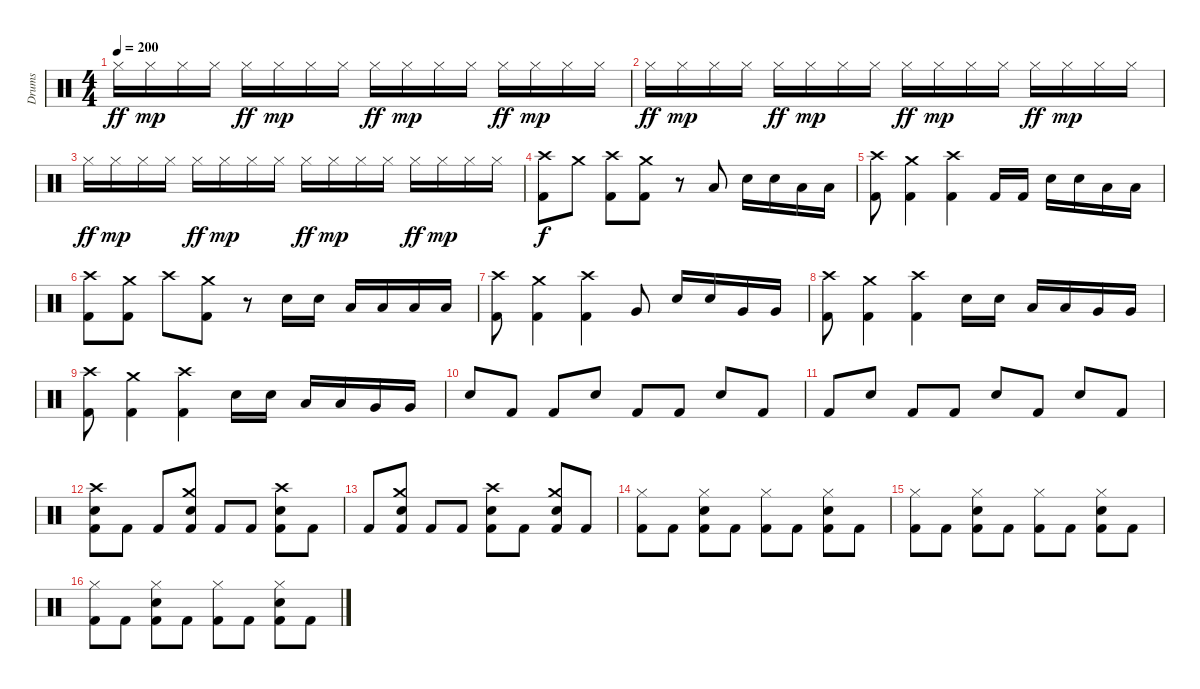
\track ("Drums" "Drums") {instrument percussion}
\staff {score}
\articulation defaults
\ts (4 4)
\tempo 200
\clef neutral
\ks c "Hi-Hat (closed)".16{dy ff} "Hi-Hat (closed)".16{dy mp} "Hi-Hat (closed)".16 "Hi-Hat (closed)".16 "Hi-Hat (closed)".16{dy ff} "Hi-Hat (closed)".16{dy mp} "Hi-Hat (closed)".16 "Hi-Hat (closed)".16 "Hi-Hat (closed)".16{dy ff} "Hi-Hat (closed)".16{dy mp} "Hi-Hat (closed)".16 "Hi-Hat (closed)".16 "Hi-Hat (closed)".16{dy ff} "Hi-Hat (closed)".16{dy mp} "Hi-Hat (closed)".16 "Hi-Hat (closed)".16
|
"Hi-Hat (closed)".16{dy ff} "Hi-Hat (closed)".16{dy mp} "Hi-Hat (closed)".16 "Hi-Hat (closed)".16 "Hi-Hat (closed)".16{dy ff} "Hi-Hat (closed)".16{dy mp} "Hi-Hat (closed)".16 "Hi-Hat (closed)".16 "Hi-Hat (closed)".16{dy ff} "Hi-Hat (closed)".16{dy mp} "Hi-Hat (closed)".16 "Hi-Hat (closed)".16 "Hi-Hat (closed)".16{dy ff} "Hi-Hat (closed)".16{dy mp} "Hi-Hat (closed)".16 "Hi-Hat (closed)".16 |
"Hi-Hat (closed)".16{dy ff} "Hi-Hat (closed)".16{dy mp} "Hi-Hat (closed)".16 "Hi-Hat (closed)".16 "Hi-Hat (closed)".16{dy ff} "Hi-Hat (closed)".16{dy mp} "Hi-Hat (closed)".16 "Hi-Hat (closed)".16 "Hi-Hat (closed)".16{dy ff} "Hi-Hat (closed)".16{dy mp} "Hi-Hat (closed)".16 "Hi-Hat (closed)".16 "Hi-Hat (closed)".16{dy ff} "Hi-Hat (closed)".16{dy mp} "Hi-Hat (closed)".16 "Hi-Hat (closed)".16 |
("Crash high (hit)" "Kick (hit) 2").8{dy f} "Crash medium (hit)".8 ("Crash high (hit)" "Kick (hit) 2").8 ("Crash medium (hit)" "Kick (hit) 2").8 r.8 "Low Tom (hit)".8 "Snare (hit) 2".16 "Snare (hit) 2".16 "Low Tom (hit)".16 "Low Tom (hit)".16 |
("Crash high (hit)" "Kick (hit) 2").8 ("Crash medium (hit)" "Kick (hit) 2").4 ("Crash high (hit)" "Kick (hit) 2").4 "Kick (hit) 2".16 "Kick (hit) 2".16 "Snare (hit) 2".16 "Snare (hit) 2".16 "Low Tom (hit)".16 "Low Tom (hit)".16 |
("Crash high (hit)" "Kick (hit) 2").8 ("Crash medium (hit)" "Kick (hit) 2").8 "Crash high (hit)".8 ("Crash medium (hit)" "Kick (hit) 2").8 r.8 "Snare (hit) 2".16 "Snare (hit) 2".16 "Low Tom (hit)".16 "Low Tom (hit)".16 "Low Tom (hit)".16 "Low Tom (hit)".16 |
("Crash high (hit)" "Kick (hit) 2").8 ("Crash medium (hit)" "Kick (hit) 2").4 ("Crash high (hit)" "Kick (hit) 2").4 "Very Low Tom (hit)".8 "Snare (hit) 2".16 "Snare (hit) 2".16 "Very Low Tom (hit)".16 "Very Low Tom (hit)".16 |
("Crash high (hit)" "Kick (hit) 2").8 ("Crash medium (hit)" "Kick (hit) 2").4 ("Crash high (hit)" "Kick (hit) 2").4 "Snare (hit) 2".16 "Snare (hit) 2".16 "Low Tom (hit)".16 "Low Tom (hit)".16 "Very Low Tom (hit)".16 "Very Low Tom (hit)".16 |
("Crash high (hit)" "Kick (hit) 2").8 ("Crash medium (hit)" "Kick (hit) 2").4 ("Crash high (hit)" "Kick (hit) 2").4 "Snare (hit) 2".16 "Snare (hit) 2".16 "Low Tom (hit)".16 "Low Tom (hit)".16 "Very Low Tom (hit)".16 "Very Low Tom (hit)".16 |
"Snare (hit) 2".8 "Kick (hit) 2".8 "Kick (hit) 2".8 "Snare (hit) 2".8 "Kick (hit) 2".8 "Kick (hit) 2".8 "Snare (hit) 2".8 "Kick (hit) 2".8 |
"Kick (hit) 2".8 "Snare (hit) 2".8 "Kick (hit) 2".8 "Kick (hit) 2".8 "Snare (hit) 2".8 "Kick (hit) 2".8 "Snare (hit) 2".8 "Kick (hit) 2".8 |
("Crash high (hit)" "Snare (hit) 2" "Kick (hit) 2").8 "Kick (hit) 2".8 "Kick (hit) 2".8 ("Crash medium (hit)" "Snare (hit) 2" "Kick (hit) 2").8 "Kick (hit) 2".8 "Kick (hit) 2".8 ("Crash high (hit)" "Snare (hit) 2" "Kick (hit) 2").8 "Kick (hit) 2".8 |
"Kick (hit) 2".8 ("Crash medium (hit)" "Snare (hit) 2" "Kick (hit) 2").8 "Kick (hit) 2".8 "Kick (hit) 2".8 ("Crash high (hit)" "Snare (hit) 2" "Kick (hit) 2").8 "Kick (hit) 2".8 ("Crash medium (hit)" "Snare (hit) 2" "Kick (hit) 2").8 "Kick (hit) 2".8 |
("Hi-Hat (closed)" "Kick (hit) 2").8 "Kick (hit) 2".8 ("Hi-Hat (closed)" "Snare (hit) 2" "Kick (hit) 2").8 "Kick (hit) 2".8 ("Hi-Hat (closed)" "Kick (hit) 2").8 "Kick (hit) 2".8 ("Hi-Hat (closed)" "Snare (hit) 2" "Kick (hit) 2").8 "Kick (hit) 2".8 |
("Hi-Hat (closed)" "Kick (hit) 2").8 "Kick (hit) 2".8 ("Hi-Hat (closed)" "Snare (hit) 2" "Kick (hit) 2").8 "Kick (hit) 2".8 ("Hi-Hat (closed)" "Kick (hit) 2").8 "Kick (hit) 2".8 ("Hi-Hat (closed)" "Snare (hit) 2" "Kick (hit) 2").8 "Kick (hit) 2".8 |
("Hi-Hat (closed)" "Kick (hit) 2").8 "Kick (hit) 2".8 ("Hi-Hat (closed)" "Snare (hit) 2" "Kick (hit) 2").8 "Kick (hit) 2".8 ("Hi-Hat (closed)" "Kick (hit) 2").8 "Kick (hit) 2".8 ("Hi-Hat (closed)" "Snare (hit) 2" "Kick (hit) 2").8 "Kick (hit) 2".8
